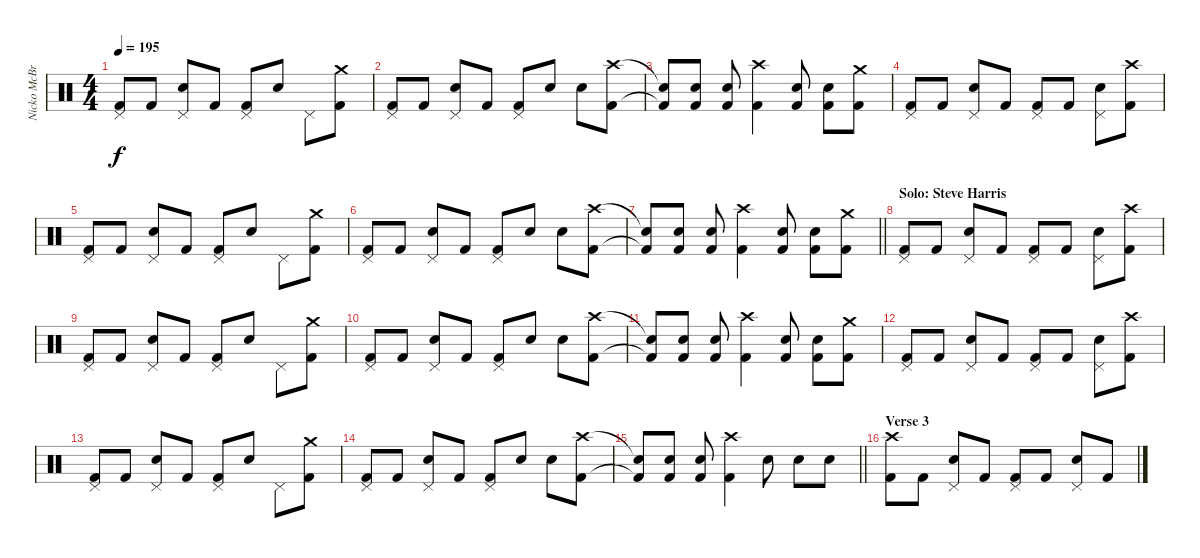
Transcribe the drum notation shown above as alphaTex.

\track ("Nicko McBrain" "Nicko McBr") {instrument percussion}
\staff {score}
\articulation defaults
\ts (4 4)
\tempo 195
\clef neutral
\ks c
("Pedal Hi-Hat (hit)" "Kick (hit) 2").8{dy f} "Kick (hit) 2".8 ("Pedal Hi-Hat (hit)" "Snare (hit) 2").8 "Kick (hit) 2".8 ("Pedal Hi-Hat (hit)" "Kick (hit) 2").8 "Snare (hit) 2".8 "Pedal Hi-Hat (hit)".8 ("Crash medium (hit)" "Kick (hit) 2").8 |
("Pedal Hi-Hat (hit)" "Kick (hit) 2").8 "Kick (hit) 2".8 ("Pedal Hi-Hat (hit)" "Snare (hit) 2").8 "Kick (hit) 2".8 ("Pedal Hi-Hat (hit)" "Kick (hit) 2").8 "Snare (hit) 2".8 "Snare (hit) 2".8 ("Crash high (hit)" "Kick (hit) 2").8 |
("Snare (hit)"{t} "Kick (hit) 2"{t}).8 ("Snare (hit) 2" "Kick (hit) 2").8 ("Snare (hit) 2" "Kick (hit) 2").8 ("Crash high (hit)" "Kick (hit) 2").4 ("Snare (hit) 2" "Kick (hit) 2").8 ("Snare (hit) 2" "Kick (hit) 2").8 ("Crash medium (hit)" "Kick (hit) 2").8 |
("Pedal Hi-Hat (hit)" "Kick (hit) 2").8 "Kick (hit) 2".8 ("Pedal Hi-Hat (hit)" "Snare (hit) 2").8 "Kick (hit) 2".8 ("Pedal Hi-Hat (hit)" "Kick (hit) 2").8 "Kick (hit) 2".8 ("Pedal Hi-Hat (hit)" "Snare (hit) 2").8 ("Crash high (hit)" "Kick (hit) 2").8 |
("Pedal Hi-Hat (hit)" "Kick (hit) 2").8 "Kick (hit) 2".8 ("Pedal Hi-Hat (hit)" "Snare (hit) 2").8 "Kick (hit) 2".8 ("Pedal Hi-Hat (hit)" "Kick (hit) 2").8 "Snare (hit) 2".8 "Pedal Hi-Hat (hit)".8 ("Crash medium (hit)" "Kick (hit) 2").8 |
("Pedal Hi-Hat (hit)" "Kick (hit) 2").8 "Kick (hit) 2".8 ("Pedal Hi-Hat (hit)" "Snare (hit) 2").8 "Kick (hit) 2".8 ("Pedal Hi-Hat (hit)" "Kick (hit) 2").8 "Snare (hit) 2".8 "Snare (hit) 2".8 ("Crash high (hit)" "Kick (hit) 2").8 |
\barLineRight lightlight
("Snare (hit)"{t} "Kick (hit) 2"{t}).8 ("Snare (hit) 2" "Kick (hit) 2").8 ("Snare (hit) 2" "Kick (hit) 2").8 ("Crash high (hit)" "Kick (hit) 2").4 ("Snare (hit) 2" "Kick (hit) 2").8 ("Snare (hit) 2" "Kick (hit) 2").8 ("Crash medium (hit)" "Kick (hit) 2").8 |
\section ("" "Solo: Steve Harris")
("Pedal Hi-Hat (hit)" "Kick (hit) 2").8 "Kick (hit) 2".8 ("Pedal Hi-Hat (hit)" "Snare (hit) 2").8 "Kick (hit) 2".8 ("Pedal Hi-Hat (hit)" "Kick (hit) 2").8 "Kick (hit) 2".8 ("Pedal Hi-Hat (hit)" "Snare (hit) 2").8 ("Crash high (hit)" "Kick (hit) 2").8 |
("Pedal Hi-Hat (hit)" "Kick (hit) 2").8 "Kick (hit) 2".8 ("Pedal Hi-Hat (hit)" "Snare (hit) 2").8 "Kick (hit) 2".8 ("Pedal Hi-Hat (hit)" "Kick (hit) 2").8 "Snare (hit) 2".8 "Pedal Hi-Hat (hit)".8 ("Crash medium (hit)" "Kick (hit) 2").8 |
("Pedal Hi-Hat (hit)" "Kick (hit) 2").8 "Kick (hit) 2".8 ("Pedal Hi-Hat (hit)" "Snare (hit) 2").8 "Kick (hit) 2".8 ("Pedal Hi-Hat (hit)" "Kick (hit) 2").8 "Snare (hit) 2".8 "Snare (hit) 2".8 ("Crash high (hit)" "Kick (hit) 2").8 |
("Snare (hit)"{t} "Kick (hit) 2"{t}).8 ("Snare (hit) 2" "Kick (hit) 2").8 ("Snare (hit) 2" "Kick (hit) 2").8 ("Crash high (hit)" "Kick (hit) 2").4 ("Snare (hit) 2" "Kick (hit) 2").8 ("Snare (hit) 2" "Kick (hit) 2").8 ("Crash medium (hit)" "Kick (hit) 2").8 |
("Pedal Hi-Hat (hit)" "Kick (hit) 2").8 "Kick (hit) 2".8 ("Pedal Hi-Hat (hit)" "Snare (hit) 2").8 "Kick (hit) 2".8 ("Pedal Hi-Hat (hit)" "Kick (hit) 2").8 "Kick (hit) 2".8 ("Pedal Hi-Hat (hit)" "Snare (hit) 2").8 ("Crash high (hit)" "Kick (hit) 2").8 |
("Pedal Hi-Hat (hit)" "Kick (hit) 2").8 "Kick (hit) 2".8 ("Pedal Hi-Hat (hit)" "Snare (hit) 2").8 "Kick (hit) 2".8 ("Pedal Hi-Hat (hit)" "Kick (hit) 2").8 "Snare (hit) 2".8 "Pedal Hi-Hat (hit)".8 ("Crash medium (hit)" "Kick (hit) 2").8 |
("Pedal Hi-Hat (hit)" "Kick (hit) 2").8 "Kick (hit) 2".8 ("Pedal Hi-Hat (hit)" "Snare (hit) 2").8 "Kick (hit) 2".8 ("Pedal Hi-Hat (hit)" "Kick (hit) 2").8 "Snare (hit) 2".8 "Snare (hit) 2".8 ("Crash high (hit)" "Kick (hit) 2").8 |
\barLineRight lightlight
("Snare (hit)"{t} "Kick (hit) 2"{t}).8 ("Snare (hit) 2" "Kick (hit) 2").8 ("Snare (hit) 2" "Kick (hit) 2").8 ("Crash high (hit)" "Kick (hit) 2").4 "Snare (hit) 2".8 "Snare (hit) 2".8 "Snare (hit) 2".8 |
\section ("" "Verse 3")
("Crash high (hit)" "Kick (hit) 2").8 "Kick (hit) 2".8 ("Pedal Hi-Hat (hit)" "Snare (hit) 2").8 "Kick (hit) 2".8 ("Pedal Hi-Hat (hit)" "Kick (hit) 2").8 "Kick (hit) 2".8 ("Pedal Hi-Hat (hit)" "Snare (hit) 2").8 "Kick (hit) 2".8
